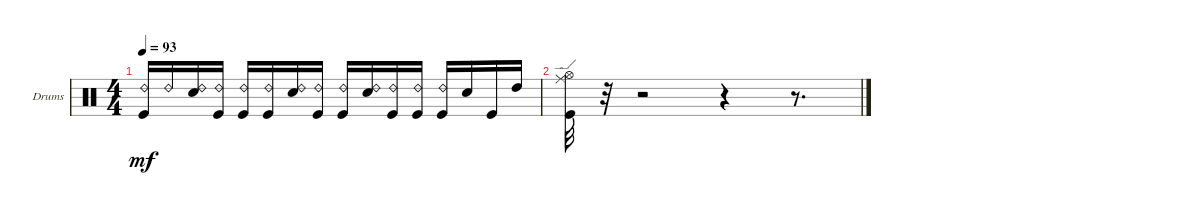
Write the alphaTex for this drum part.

\defaultSystemsLayout 4
\bracketExtendMode groupsimilarinstruments
\firstSystemTrackNameOrientation horizontal
\otherSystemsTrackNameOrientation horizontal
\track ("Drumkit" "Drums") {instrument percussion}
\staff {score}
\articulation defaults
\ts (4 4)
\tempo 93
\clef neutral
\ks c
("Kick (hit)" "Ride (bell) 2").16{dy mf} "Ride (bell) 2".16 ("Snare (hit) 2" "Ride (bell) 2").16 ("Kick (hit)" "Ride (bell) 2").16 ("Kick (hit)" "Ride (bell) 2").16 ("Kick (hit)" "Ride (bell) 2").16 ("Snare (hit) 2" "Ride (bell) 2").16 ("Kick (hit)" "Ride (bell) 2").16 ("Kick (hit)" "Ride (bell) 2").16 ("Snare (hit) 2" "Ride (bell) 2").16 ("Kick (hit)" "Ride (bell) 2").16 ("Kick (hit)" "Ride (bell) 2").16 ("Kick (hit)" "Ride (bell) 2").16 "Snare (hit) 2".16 "Kick (hit)".16 "High Tom (hit)".16 |
("Kick (hit)" "Hi-Hat (open)" "Ride (edge)").32 r.32 r.2 r.4 r.8{d}
